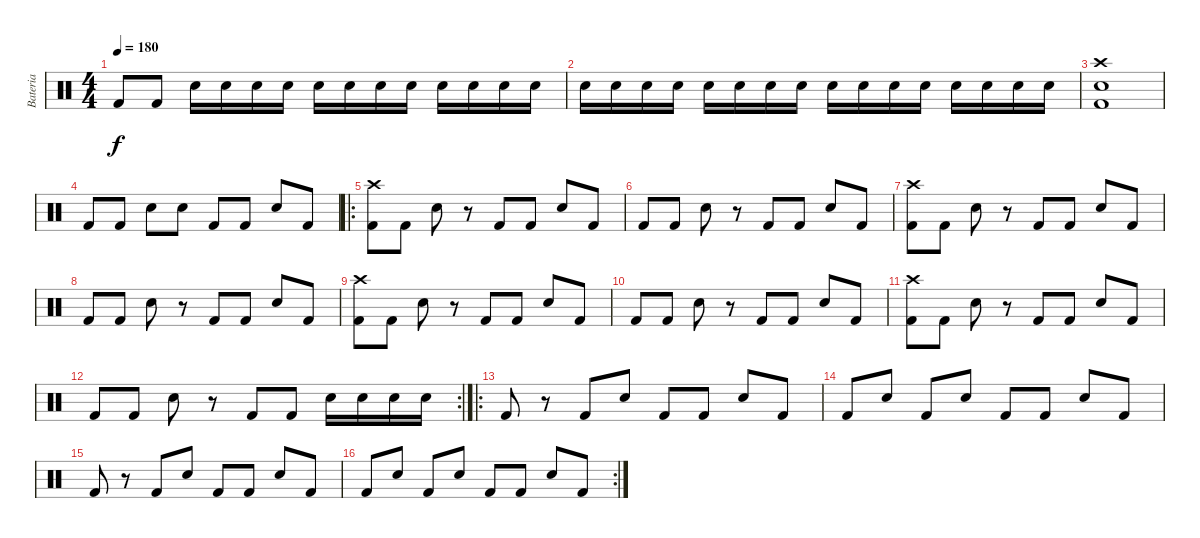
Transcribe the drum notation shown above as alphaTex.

\track ("Bateria" "Bateria") {instrument percussion}
\staff {score}
\articulation defaults
\ts (4 4)
\tempo 180
\clef neutral
\ks c "Kick (hit) 2".8{dy f} "Kick (hit) 2".8 "Electric Snare (hit)".16 "Electric Snare (hit)".16 "Electric Snare (hit)".16 "Electric Snare (hit)".16 "Electric Snare (hit)".16 "Electric Snare (hit)".16 "Electric Snare (hit)".16 "Electric Snare (hit)".16 "Electric Snare (hit)".16 "Electric Snare (hit)".16 "Electric Snare (hit)".16 "Electric Snare (hit)".16
|
"Electric Snare (hit)".16 "Electric Snare (hit)".16 "Electric Snare (hit)".16 "Electric Snare (hit)".16 "Electric Snare (hit)".16 "Electric Snare (hit)".16 "Electric Snare (hit)".16 "Electric Snare (hit)".16 "Electric Snare (hit)".16 "Electric Snare (hit)".16 "Electric Snare (hit)".16 "Electric Snare (hit)".16 "Electric Snare (hit)".16 "Electric Snare (hit)".16 "Electric Snare (hit)".16 "Electric Snare (hit)".16 |
("Kick (hit) 2" "Electric Snare (hit)" "Crash high (hit)").1 |
"Kick (hit) 2".8 "Kick (hit) 2".8 "Electric Snare (hit)".8 "Electric Snare (hit)".8 "Kick (hit) 2".8 "Kick (hit) 2".8 "Electric Snare (hit)".8 "Kick (hit) 2".8 |
\ro
("Kick (hit) 2" "Crash high (hit)").8 "Kick (hit) 2".8 "Electric Snare (hit)".8 r.8 "Kick (hit) 2".8 "Kick (hit) 2".8 "Electric Snare (hit)".8 "Kick (hit) 2".8 |
"Kick (hit) 2".8 "Kick (hit) 2".8 "Electric Snare (hit)".8 r.8 "Kick (hit) 2".8 "Kick (hit) 2".8 "Electric Snare (hit)".8 "Kick (hit) 2".8 |
("Kick (hit) 2" "Crash high (hit)").8 "Kick (hit) 2".8 "Electric Snare (hit)".8 r.8 "Kick (hit) 2".8 "Kick (hit) 2".8 "Electric Snare (hit)".8 "Kick (hit) 2".8 |
"Kick (hit) 2".8 "Kick (hit) 2".8 "Electric Snare (hit)".8 r.8 "Kick (hit) 2".8 "Kick (hit) 2".8 "Electric Snare (hit)".8 "Kick (hit) 2".8 |
("Kick (hit) 2" "Crash high (hit)").8 "Kick (hit) 2".8 "Electric Snare (hit)".8 r.8 "Kick (hit) 2".8 "Kick (hit) 2".8 "Electric Snare (hit)".8 "Kick (hit) 2".8 |
"Kick (hit) 2".8 "Kick (hit) 2".8 "Electric Snare (hit)".8 r.8 "Kick (hit) 2".8 "Kick (hit) 2".8 "Electric Snare (hit)".8 "Kick (hit) 2".8 |
("Kick (hit) 2" "Crash high (hit)").8 "Kick (hit) 2".8 "Electric Snare (hit)".8 r.8 "Kick (hit) 2".8 "Kick (hit) 2".8 "Electric Snare (hit)".8 "Kick (hit) 2".8 |
\rc 2 "Kick (hit) 2".8 "Kick (hit) 2".8 "Electric Snare (hit)".8
r.8 "Kick (hit) 2".8 "Kick (hit) 2".8 "Electric Snare (hit)".16 "Electric Snare (hit)".16 "Electric Snare (hit)".16 "Electric Snare (hit)".16 |
\ro "Kick (hit) 2".8
r.8 "Kick (hit) 2".8 "Electric Snare (hit)".8 "Kick (hit) 2".8 "Kick (hit) 2".8 "Electric Snare (hit)".8 "Kick (hit) 2".8 |
"Kick (hit) 2".8 "Electric Snare (hit)".8 "Kick (hit) 2".8 "Electric Snare (hit)".8 "Kick (hit) 2".8 "Kick (hit) 2".8 "Electric Snare (hit)".8 "Kick (hit) 2".8 |
"Kick (hit) 2".8 r.8 "Kick (hit) 2".8 "Electric Snare (hit)".8 "Kick (hit) 2".8 "Kick (hit) 2".8 "Electric Snare (hit)".8 "Kick (hit) 2".8 |
\rc 2 "Kick (hit) 2".8 "Electric Snare (hit)".8 "Kick (hit) 2".8 "Electric Snare (hit)".8 "Kick (hit) 2".8 "Kick (hit) 2".8 "Electric Snare (hit)".8 "Kick (hit) 2".8
